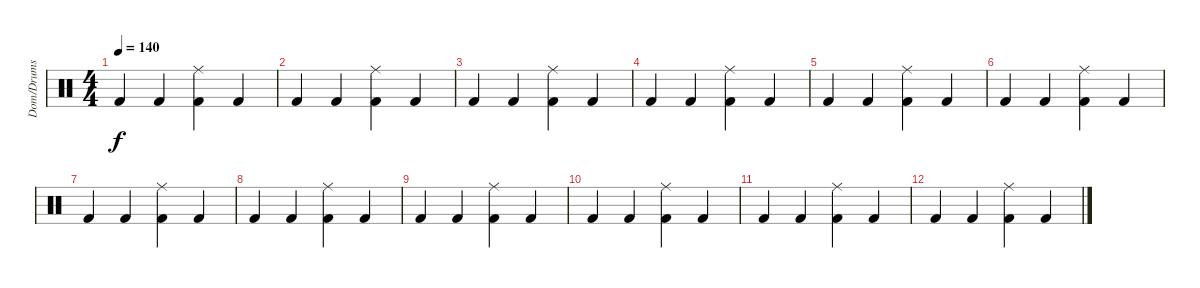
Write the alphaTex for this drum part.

\track ("Dom/Drums" "Dom/Drums") {instrument percussion}
\staff {score}
\articulation defaults
\ts (4 4)
\tempo 140
\clef neutral
\ks c "Kick (hit) 2".4{dy f} "Kick (hit) 2".4
("Ride (middle)" "Kick (hit) 2").4 "Kick (hit) 2".4 |
"Kick (hit) 2".4 "Kick (hit) 2".4 ("Ride (middle)" "Kick (hit) 2").4 "Kick (hit) 2".4 |
"Kick (hit) 2".4 "Kick (hit) 2".4 ("Ride (middle)" "Kick (hit) 2").4 "Kick (hit) 2".4 |
"Kick (hit) 2".4 "Kick (hit) 2".4 ("Ride (middle)" "Kick (hit) 2").4 "Kick (hit) 2".4 |
"Kick (hit) 2".4 "Kick (hit) 2".4 ("Ride (middle)" "Kick (hit) 2").4 "Kick (hit) 2".4 |
"Kick (hit) 2".4 "Kick (hit) 2".4 ("Ride (middle)" "Kick (hit) 2").4 "Kick (hit) 2".4 |
"Kick (hit) 2".4 "Kick (hit) 2".4 ("Ride (middle)" "Kick (hit) 2").4 "Kick (hit) 2".4 |
"Kick (hit) 2".4 "Kick (hit) 2".4 ("Ride (middle)" "Kick (hit) 2").4 "Kick (hit) 2".4 |
"Kick (hit) 2".4 "Kick (hit) 2".4 ("Ride (middle)" "Kick (hit) 2").4 "Kick (hit) 2".4 |
"Kick (hit) 2".4 "Kick (hit) 2".4 ("Ride (middle)" "Kick (hit) 2").4 "Kick (hit) 2".4 |
"Kick (hit) 2".4 "Kick (hit) 2".4 ("Ride (middle)" "Kick (hit) 2").4 "Kick (hit) 2".4 |
"Kick (hit) 2".4 "Kick (hit) 2".4 ("Ride (middle)" "Kick (hit) 2").4 "Kick (hit) 2".4
